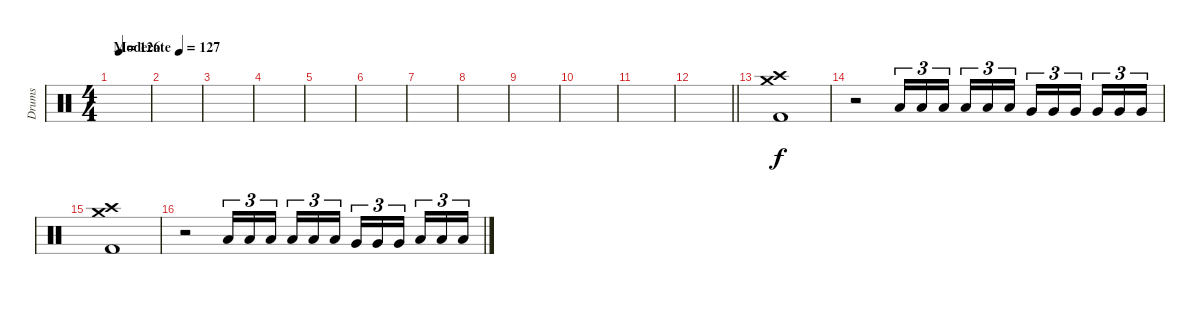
\track ("Drums" "Drums") {instrument percussion}
\staff {score}
\articulation defaults
\ts (4 4)
\tempo (127 "Moderate")
\tempo (126 0.1875)
\tempo (127 "Moderate")
\clef neutral
\ks c
|
|
|
|
|
|
|
|
|
|
|
\barLineRight lightlight
|
\section ("" "")
("Crash medium (hit)" "Crash high (hit)" "Kick (hit) 2").1 |
r.2 "Low Tom (hit)".16{tu (3 2)} "Low Tom (hit)".16{tu (3 2)} "Low Tom (hit)".16{tu (3 2) beam splitsecondary} "Low Tom (hit)".16{tu (3 2)} "Low Tom (hit)".16{tu (3 2)} "Low Tom (hit)".16{tu (3 2)} "Very Low Tom (hit)".16{tu (3 2)} "Very Low Tom (hit)".16{tu (3 2)} "Very Low Tom (hit)".16{tu (3 2) beam splitsecondary} "Very Low Tom (hit)".16{tu (3 2)} "Very Low Tom (hit)".16{tu (3 2)} "Very Low Tom (hit)".16{tu (3 2)} |
("Crash medium (hit)" "Crash high (hit)" "Kick (hit) 2").1 |
r.2 "Low Tom (hit)".16{tu (3 2)} "Low Tom (hit)".16{tu (3 2)} "Low Tom (hit)".16{tu (3 2) beam splitsecondary} "Low Tom (hit)".16{tu (3 2)} "Low Tom (hit)".16{tu (3 2)} "Low Tom (hit)".16{tu (3 2)} "Very Low Tom (hit)".16{tu (3 2)} "Very Low Tom (hit)".16{tu (3 2)} "Very Low Tom (hit)".16{tu (3 2) beam splitsecondary} "Low Floor Tom (hit)".16{tu (3 2)} "Low Floor Tom (hit)".16{tu (3 2)} "Low Floor Tom (hit)".16{tu (3 2)}
